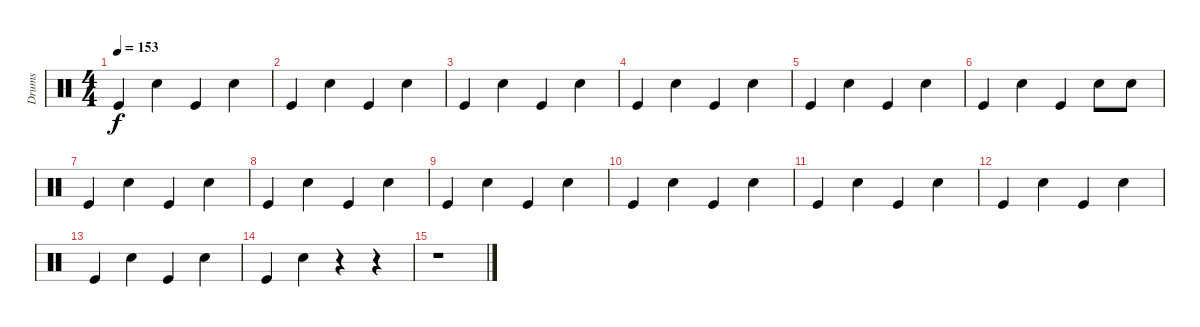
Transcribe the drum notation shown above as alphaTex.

\track ("Drums" "Drums") {instrument percussion}
\staff {score}
\articulation defaults
\ts (4 4)
\tempo 153
\clef neutral
\ks c "Kick (hit)".4{dy f} "Snare (hit) 2".4 "Kick (hit)".4 "Snare (hit) 2".4
|
"Kick (hit)".4 "Snare (hit) 2".4 "Kick (hit)".4 "Snare (hit) 2".4 |
"Kick (hit)".4 "Snare (hit) 2".4 "Kick (hit)".4 "Snare (hit) 2".4 |
"Kick (hit)".4 "Snare (hit) 2".4 "Kick (hit)".4 "Snare (hit) 2".4 |
"Kick (hit)".4 "Snare (hit) 2".4 "Kick (hit)".4 "Snare (hit) 2".4 |
"Kick (hit)".4 "Snare (hit) 2".4 "Kick (hit)".4 "Snare (hit) 2".8 "Snare (hit) 2".8 |
"Kick (hit)".4 "Snare (hit) 2".4 "Kick (hit)".4 "Snare (hit) 2".4 |
"Kick (hit)".4 "Snare (hit) 2".4 "Kick (hit)".4 "Snare (hit) 2".4 |
"Kick (hit)".4 "Snare (hit) 2".4 "Kick (hit)".4 "Snare (hit) 2".4 |
"Kick (hit)".4 "Snare (hit) 2".4 "Kick (hit)".4 "Snare (hit) 2".4 |
"Kick (hit)".4 "Snare (hit) 2".4 "Kick (hit)".4 "Snare (hit) 2".4 |
"Kick (hit)".4 "Snare (hit) 2".4 "Kick (hit)".4 "Snare (hit) 2".4 |
"Kick (hit)".4 "Snare (hit) 2".4 "Kick (hit)".4 "Snare (hit) 2".4 |
"Kick (hit)".4 "Snare (hit) 2".4 r.4 r.4 |
r.1
